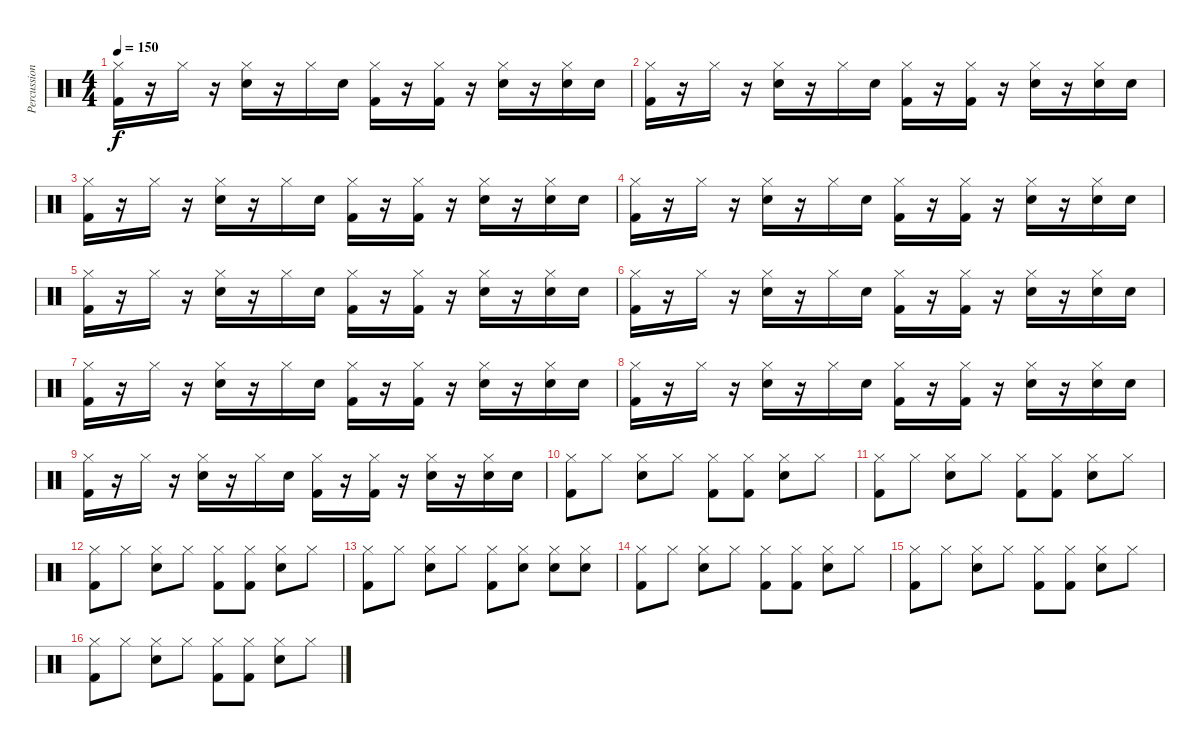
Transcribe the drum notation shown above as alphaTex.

\track ("Percussion" "Percussion") {instrument percussion}
\staff {score}
\articulation defaults
\ts (4 4)
\tempo 150
\clef neutral
\ks c
("Hi-Hat (closed)" "Kick (hit) 2").16{dy f} r.16 "Hi-Hat (closed)".16 r.16 ("Hi-Hat (closed)" "Electric Snare (hit)").16 r.16 "Hi-Hat (closed)".16 "Electric Snare (hit)".16 ("Hi-Hat (closed)" "Kick (hit) 2").16 r.16 ("Hi-Hat (closed)" "Kick (hit) 2").16 r.16 ("Hi-Hat (closed)" "Electric Snare (hit)").16 r.16 ("Hi-Hat (closed)" "Electric Snare (hit)").16 "Electric Snare (hit)".16 |
("Hi-Hat (closed)" "Kick (hit) 2").16 r.16 "Hi-Hat (closed)".16 r.16 ("Hi-Hat (closed)" "Electric Snare (hit)").16 r.16 "Hi-Hat (closed)".16 "Electric Snare (hit)".16 ("Hi-Hat (closed)" "Kick (hit) 2").16 r.16 ("Hi-Hat (closed)" "Kick (hit) 2").16 r.16 ("Hi-Hat (closed)" "Electric Snare (hit)").16 r.16 ("Hi-Hat (closed)" "Electric Snare (hit)").16 "Electric Snare (hit)".16 |
("Hi-Hat (closed)" "Kick (hit) 2").16 r.16 "Hi-Hat (closed)".16 r.16 ("Hi-Hat (closed)" "Electric Snare (hit)").16 r.16 "Hi-Hat (closed)".16 "Electric Snare (hit)".16 ("Hi-Hat (closed)" "Kick (hit) 2").16 r.16 ("Hi-Hat (closed)" "Kick (hit) 2").16 r.16 ("Hi-Hat (closed)" "Electric Snare (hit)").16 r.16 ("Hi-Hat (closed)" "Electric Snare (hit)").16 "Electric Snare (hit)".16 |
("Hi-Hat (closed)" "Kick (hit) 2").16 r.16 "Hi-Hat (closed)".16 r.16 ("Hi-Hat (closed)" "Electric Snare (hit)").16 r.16 "Hi-Hat (closed)".16 "Electric Snare (hit)".16 ("Hi-Hat (closed)" "Kick (hit) 2").16 r.16 ("Hi-Hat (closed)" "Kick (hit) 2").16 r.16 ("Hi-Hat (closed)" "Electric Snare (hit)").16 r.16 ("Hi-Hat (closed)" "Electric Snare (hit)").16 "Electric Snare (hit)".16 |
("Hi-Hat (closed)" "Kick (hit) 2").16 r.16 "Hi-Hat (closed)".16 r.16 ("Hi-Hat (closed)" "Electric Snare (hit)").16 r.16 "Hi-Hat (closed)".16 "Electric Snare (hit)".16 ("Hi-Hat (closed)" "Kick (hit) 2").16 r.16 ("Hi-Hat (closed)" "Kick (hit) 2").16 r.16 ("Hi-Hat (closed)" "Electric Snare (hit)").16 r.16 ("Hi-Hat (closed)" "Electric Snare (hit)").16 "Electric Snare (hit)".16 |
("Hi-Hat (closed)" "Kick (hit) 2").16 r.16 "Hi-Hat (closed)".16 r.16 ("Hi-Hat (closed)" "Electric Snare (hit)").16 r.16 "Hi-Hat (closed)".16 "Electric Snare (hit)".16 ("Hi-Hat (closed)" "Kick (hit) 2").16 r.16 ("Hi-Hat (closed)" "Kick (hit) 2").16 r.16 ("Hi-Hat (closed)" "Electric Snare (hit)").16 r.16 ("Hi-Hat (closed)" "Electric Snare (hit)").16 "Electric Snare (hit)".16 |
("Hi-Hat (closed)" "Kick (hit) 2").16 r.16 "Hi-Hat (closed)".16 r.16 ("Hi-Hat (closed)" "Electric Snare (hit)").16 r.16 "Hi-Hat (closed)".16 "Electric Snare (hit)".16 ("Hi-Hat (closed)" "Kick (hit) 2").16 r.16 ("Hi-Hat (closed)" "Kick (hit) 2").16 r.16 ("Hi-Hat (closed)" "Electric Snare (hit)").16 r.16 ("Hi-Hat (closed)" "Electric Snare (hit)").16 "Electric Snare (hit)".16 |
("Hi-Hat (closed)" "Kick (hit) 2").16 r.16 "Hi-Hat (closed)".16 r.16 ("Hi-Hat (closed)" "Electric Snare (hit)").16 r.16 "Hi-Hat (closed)".16 "Electric Snare (hit)".16 ("Hi-Hat (closed)" "Kick (hit) 2").16 r.16 ("Hi-Hat (closed)" "Kick (hit) 2").16 r.16 ("Hi-Hat (closed)" "Electric Snare (hit)").16 r.16 ("Hi-Hat (closed)" "Electric Snare (hit)").16 "Electric Snare (hit)".16 |
("Hi-Hat (closed)" "Kick (hit) 2").16 r.16 "Hi-Hat (closed)".16 r.16 ("Hi-Hat (closed)" "Electric Snare (hit)").16 r.16 "Hi-Hat (closed)".16 "Electric Snare (hit)".16 ("Hi-Hat (closed)" "Kick (hit) 2").16 r.16 ("Hi-Hat (closed)" "Kick (hit) 2").16 r.16 ("Hi-Hat (closed)" "Electric Snare (hit)").16 r.16 ("Hi-Hat (closed)" "Electric Snare (hit)").16 "Electric Snare (hit)".16 |
("Hi-Hat (closed)" "Kick (hit) 2").8 "Hi-Hat (closed)".8 ("Hi-Hat (closed)" "Electric Snare (hit)").8 "Hi-Hat (closed)".8 ("Hi-Hat (closed)" "Kick (hit) 2").8 ("Hi-Hat (closed)" "Kick (hit) 2").8 ("Hi-Hat (closed)" "Electric Snare (hit)").8 "Hi-Hat (closed)".8 |
("Hi-Hat (closed)" "Kick (hit) 2").8 "Hi-Hat (closed)".8 ("Hi-Hat (closed)" "Electric Snare (hit)").8 "Hi-Hat (closed)".8 ("Hi-Hat (closed)" "Kick (hit) 2").8 ("Hi-Hat (closed)" "Kick (hit) 2").8 ("Hi-Hat (closed)" "Electric Snare (hit)").8 "Hi-Hat (closed)".8 |
("Hi-Hat (closed)" "Kick (hit) 2").8 "Hi-Hat (closed)".8 ("Hi-Hat (closed)" "Electric Snare (hit)").8 "Hi-Hat (closed)".8 ("Hi-Hat (closed)" "Kick (hit) 2").8 ("Hi-Hat (closed)" "Kick (hit) 2").8 ("Hi-Hat (closed)" "Electric Snare (hit)").8 "Hi-Hat (closed)".8 |
("Hi-Hat (closed)" "Kick (hit) 2").8 "Hi-Hat (closed)".8 ("Hi-Hat (closed)" "Electric Snare (hit)").8 "Hi-Hat (closed)".8 ("Hi-Hat (closed)" "Kick (hit) 2").8 ("Hi-Hat (closed)" "Electric Snare (hit)").8 ("Hi-Hat (closed)" "Electric Snare (hit)").8 ("Hi-Hat (closed)" "Electric Snare (hit)").8 |
("Hi-Hat (closed)" "Kick (hit) 2").8 "Hi-Hat (closed)".8 ("Hi-Hat (closed)" "Electric Snare (hit)").8 "Hi-Hat (closed)".8 ("Hi-Hat (closed)" "Kick (hit) 2").8 ("Hi-Hat (closed)" "Kick (hit) 2").8 ("Hi-Hat (closed)" "Electric Snare (hit)").8 "Hi-Hat (closed)".8 |
("Hi-Hat (closed)" "Kick (hit) 2").8 "Hi-Hat (closed)".8 ("Hi-Hat (closed)" "Electric Snare (hit)").8 "Hi-Hat (closed)".8 ("Hi-Hat (closed)" "Kick (hit) 2").8 ("Hi-Hat (closed)" "Kick (hit) 2").8 ("Hi-Hat (closed)" "Electric Snare (hit)").8 "Hi-Hat (closed)".8 |
("Hi-Hat (closed)" "Kick (hit) 2").8 "Hi-Hat (closed)".8 ("Hi-Hat (closed)" "Electric Snare (hit)").8 "Hi-Hat (closed)".8 ("Hi-Hat (closed)" "Kick (hit) 2").8 ("Hi-Hat (closed)" "Kick (hit) 2").8 ("Hi-Hat (closed)" "Electric Snare (hit)").8 "Hi-Hat (closed)".8
